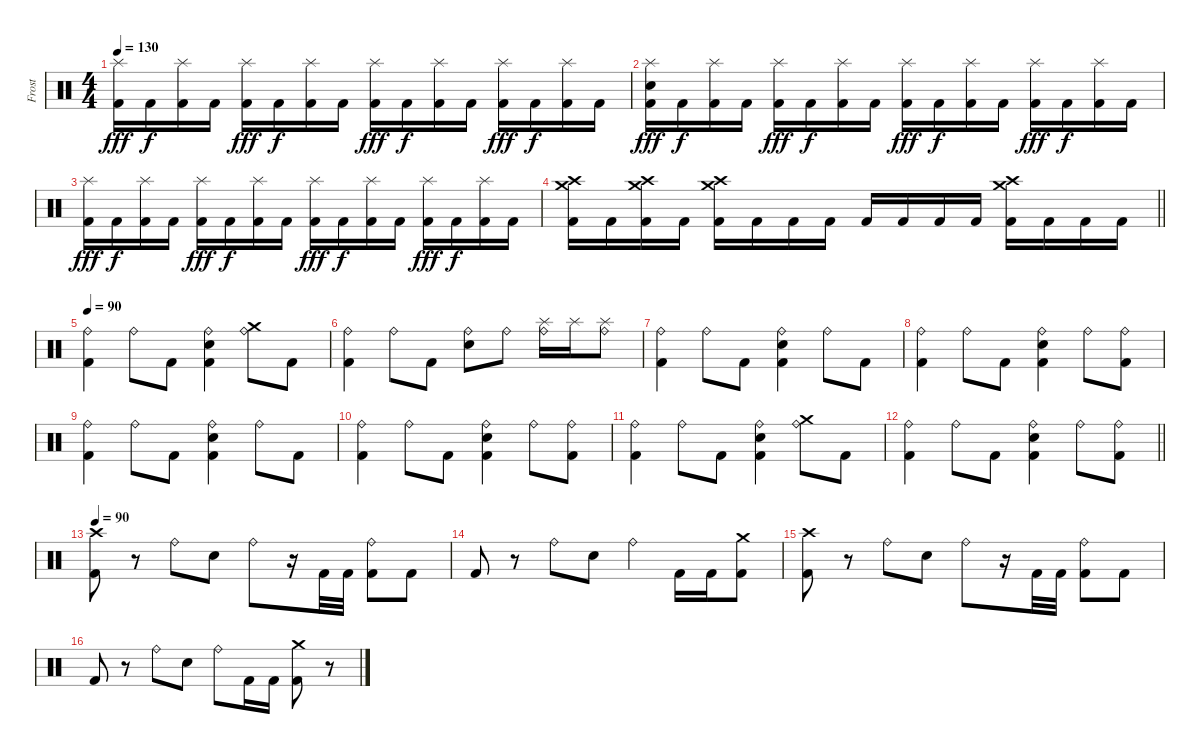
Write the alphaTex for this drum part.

\track ("Frost" "Frost") {instrument percussion}
\staff {score}
\articulation defaults
\ts (4 4)
\tempo 130
\clef neutral
\ks c
("Kick (hit) 2" "Splash (hit)").16{dy fff} "Kick (hit) 2".16{dy f} ("Kick (hit) 2" "Splash (hit)").16 "Kick (hit) 2".16 ("Kick (hit) 2" "Splash (hit)").16{dy fff} "Kick (hit) 2".16{dy f} ("Kick (hit) 2" "Splash (hit)").16 "Kick (hit) 2".16 ("Kick (hit) 2" "Splash (hit)").16{dy fff} "Kick (hit) 2".16{dy f} ("Kick (hit) 2" "Splash (hit)").16 "Kick (hit) 2".16 ("Kick (hit) 2" "Splash (hit)").16{dy fff} "Kick (hit) 2".16{dy f} ("Kick (hit) 2" "Splash (hit)").16 "Kick (hit) 2".16 |
("Kick (hit) 2" "Splash (hit)" "Snare (hit) 2").16{dy fff} "Kick (hit) 2".16{dy f} ("Kick (hit) 2" "Splash (hit)").16 "Kick (hit) 2".16 ("Kick (hit) 2" "Splash (hit)").16{dy fff} "Kick (hit) 2".16{dy f} ("Kick (hit) 2" "Splash (hit)").16 "Kick (hit) 2".16 ("Kick (hit) 2" "Splash (hit)").16{dy fff} "Kick (hit) 2".16{dy f} ("Kick (hit) 2" "Splash (hit)").16 "Kick (hit) 2".16 ("Kick (hit) 2" "Splash (hit)").16{dy fff} "Kick (hit) 2".16{dy f} ("Kick (hit) 2" "Splash (hit)").16 "Kick (hit) 2".16 |
("Kick (hit) 2" "Splash (hit)").16{dy fff} "Kick (hit) 2".16{dy f} ("Kick (hit) 2" "Splash (hit)").16 "Kick (hit) 2".16 ("Kick (hit) 2" "Splash (hit)").16{dy fff} "Kick (hit) 2".16{dy f} ("Kick (hit) 2" "Splash (hit)").16 "Kick (hit) 2".16 ("Kick (hit) 2" "Splash (hit)").16{dy fff} "Kick (hit) 2".16{dy f} ("Kick (hit) 2" "Splash (hit)").16 "Kick (hit) 2".16 ("Kick (hit) 2" "Splash (hit)").16{dy fff} "Kick (hit) 2".16{dy f} ("Kick (hit) 2" "Splash (hit)").16 "Kick (hit) 2".16 |
\barLineRight lightlight
("Kick (hit) 2" "Crash medium (hit)" "Crash high (hit)").16 "Kick (hit) 2".16 ("Kick (hit) 2" "Crash high (hit)" "Crash medium (hit)").16 "Kick (hit) 2".16 ("Kick (hit) 2" "Crash medium (hit)" "Crash high (hit)").16 "Kick (hit) 2".16 "Kick (hit) 2".16 "Kick (hit) 2".16 "Kick (hit) 2".16 "Kick (hit) 2".16 "Kick (hit) 2".16 "Kick (hit) 2".16 ("Kick (hit) 2" "Crash high (hit)" "Crash medium (hit)").16 "Kick (hit) 2".16 "Kick (hit) 2".16 "Kick (hit) 2".16 |
\tempo 90
("Kick (hit) 2" "Ride (bell)").4 "Ride (bell)".8 "Kick (hit) 2".8 ("Kick (hit) 2" "Snare (hit) 2" "Ride (bell)").4 ("Ride (bell)" "Crash medium (hit)").8 "Kick (hit) 2".8 |
("Kick (hit) 2" "Ride (bell)").4 "Ride (bell)".8 "Kick (hit) 2".8 ("Snare (hit) 2" "Ride (bell)").8 "Ride (bell)".8 ("Splash (hit)" "Ride (bell)").16 "Splash (hit)".16 ("Splash (hit)" "Ride (bell)").8 |
("Kick (hit) 2" "Ride (bell)").4 "Ride (bell)".8 "Kick (hit) 2".8 ("Kick (hit) 2" "Snare (hit) 2" "Ride (bell)").4 "Ride (bell)".8 "Kick (hit) 2".8 |
("Kick (hit) 2" "Ride (bell)").4 "Ride (bell)".8 "Kick (hit) 2".8 ("Kick (hit) 2" "Snare (hit) 2" "Ride (bell)").4 "Ride (bell)".8 ("Kick (hit) 2" "Ride (bell)").8 |
("Kick (hit) 2" "Ride (bell)").4 "Ride (bell)".8 "Kick (hit) 2".8 ("Kick (hit) 2" "Snare (hit) 2" "Ride (bell)").4 "Ride (bell)".8 "Kick (hit) 2".8 |
("Kick (hit) 2" "Ride (bell)").4 "Ride (bell)".8 "Kick (hit) 2".8 ("Kick (hit) 2" "Snare (hit) 2" "Ride (bell)").4 "Ride (bell)".8 ("Kick (hit) 2" "Ride (bell)").8 |
("Kick (hit) 2" "Ride (bell)").4 "Ride (bell)".8 "Kick (hit) 2".8 ("Kick (hit) 2" "Snare (hit) 2" "Ride (bell)").4 ("Ride (bell)" "Crash medium (hit)").8 "Kick (hit) 2".8 |
\barLineRight lightlight
("Kick (hit) 2" "Ride (bell)").4 "Ride (bell)".8 "Kick (hit) 2".8 ("Kick (hit) 2" "Snare (hit) 2" "Ride (bell)").4 "Ride (bell)".8 ("Kick (hit) 2" "Ride (bell)").8 |
\tempo 90
("Kick (hit) 2" "Crash high (hit)").8 r.8 "Ride (bell)".8 "Snare (hit) 2".8 "Ride (bell)".8 r.16 "Kick (hit) 2".32 "Kick (hit) 2".32 ("Kick (hit) 2" "Ride (bell)").8 "Kick (hit) 2".8 |
"Kick (hit) 2".8 r.8 "Ride (bell)".8 "Snare (hit) 2".8 "Ride (bell)".4 "Kick (hit) 2".16 "Kick (hit) 2".16 ("Kick (hit) 2" "Crash medium (hit)").8 |
("Kick (hit) 2" "Crash high (hit)").8 r.8 "Ride (bell)".8 "Snare (hit) 2".8 "Ride (bell)".8 r.16 "Kick (hit) 2".32 "Kick (hit) 2".32 ("Kick (hit) 2" "Ride (bell)").8 "Kick (hit) 2".8 |
"Kick (hit) 2".8 r.8 "Ride (bell)".8 "Snare (hit) 2".8 "Ride (bell)".8 "Kick (hit) 2".16 "Kick (hit) 2".16 ("Kick (hit) 2" "Crash medium (hit)").8 r.8
